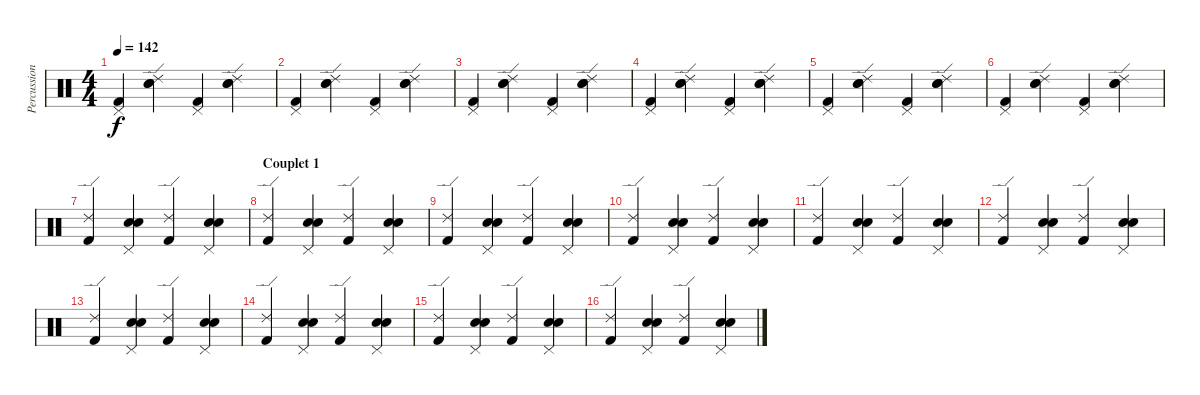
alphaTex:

\track ("Percussions" "Percussion") {instrument percussion}
\staff {score}
\articulation defaults
\ts (4 4)
\tempo 142
\clef neutral
\ks c
("Kick (hit) 2" "Pedal Hi-Hat (hit)").4{dy f} ("Snare (hit) 2" "Electric Snare (hit)" "Ride (edge) 2").4 ("Kick (hit) 2" "Pedal Hi-Hat (hit)").4 ("Snare (hit) 2" "Electric Snare (hit)" "Ride (edge) 2").4 |
("Kick (hit) 2" "Pedal Hi-Hat (hit)").4 ("Snare (hit) 2" "Electric Snare (hit)" "Ride (edge) 2").4 ("Kick (hit) 2" "Pedal Hi-Hat (hit)").4 ("Snare (hit) 2" "Electric Snare (hit)" "Ride (edge) 2").4 |
("Kick (hit) 2" "Pedal Hi-Hat (hit)").4 ("Snare (hit) 2" "Electric Snare (hit)" "Ride (edge) 2").4 ("Kick (hit) 2" "Pedal Hi-Hat (hit)").4 ("Snare (hit) 2" "Electric Snare (hit)" "Ride (edge) 2").4 |
("Kick (hit) 2" "Pedal Hi-Hat (hit)").4 ("Snare (hit) 2" "Electric Snare (hit)" "Ride (edge) 2").4 ("Kick (hit) 2" "Pedal Hi-Hat (hit)").4 ("Snare (hit) 2" "Electric Snare (hit)" "Ride (edge) 2").4 |
("Kick (hit) 2" "Pedal Hi-Hat (hit)").4 ("Snare (hit) 2" "Electric Snare (hit)" "Ride (edge) 2").4 ("Kick (hit) 2" "Pedal Hi-Hat (hit)").4 ("Snare (hit) 2" "Electric Snare (hit)" "Ride (edge) 2").4 |
("Kick (hit) 2" "Pedal Hi-Hat (hit)").4 ("Snare (hit) 2" "Electric Snare (hit)" "Ride (edge) 2").4 ("Kick (hit) 2" "Pedal Hi-Hat (hit)").4 ("Snare (hit) 2" "Electric Snare (hit)" "Ride (edge) 2").4 |
("Kick (hit) 2" "Ride (edge) 2").4 ("Snare (hit) 2" "Electric Snare (hit)" "Pedal Hi-Hat (hit)").4 ("Kick (hit) 2" "Ride (edge) 2").4 ("Snare (hit) 2" "Electric Snare (hit)" "Pedal Hi-Hat (hit)").4 |
\section ("" "Couplet 1")
("Kick (hit) 2" "Ride (edge) 2").4 ("Snare (hit) 2" "Electric Snare (hit)" "Pedal Hi-Hat (hit)").4 ("Kick (hit) 2" "Ride (edge) 2").4 ("Snare (hit) 2" "Electric Snare (hit)" "Pedal Hi-Hat (hit)").4 |
("Kick (hit) 2" "Ride (edge) 2").4 ("Snare (hit) 2" "Electric Snare (hit)" "Pedal Hi-Hat (hit)").4 ("Kick (hit) 2" "Ride (edge) 2").4 ("Snare (hit) 2" "Electric Snare (hit)" "Pedal Hi-Hat (hit)").4 |
("Kick (hit) 2" "Ride (edge) 2").4 ("Snare (hit) 2" "Electric Snare (hit)" "Pedal Hi-Hat (hit)").4 ("Kick (hit) 2" "Ride (edge) 2").4 ("Snare (hit) 2" "Electric Snare (hit)" "Pedal Hi-Hat (hit)").4 |
("Kick (hit) 2" "Ride (edge) 2").4 ("Snare (hit) 2" "Electric Snare (hit)" "Pedal Hi-Hat (hit)").4 ("Kick (hit) 2" "Ride (edge) 2").4 ("Snare (hit) 2" "Electric Snare (hit)" "Pedal Hi-Hat (hit)").4 |
("Kick (hit) 2" "Ride (edge) 2").4 ("Snare (hit) 2" "Electric Snare (hit)" "Pedal Hi-Hat (hit)").4 ("Kick (hit) 2" "Ride (edge) 2").4 ("Snare (hit) 2" "Electric Snare (hit)" "Pedal Hi-Hat (hit)").4 |
("Kick (hit) 2" "Ride (edge) 2").4 ("Snare (hit) 2" "Electric Snare (hit)" "Pedal Hi-Hat (hit)").4 ("Kick (hit) 2" "Ride (edge) 2").4 ("Snare (hit) 2" "Electric Snare (hit)" "Pedal Hi-Hat (hit)").4 |
("Kick (hit) 2" "Ride (edge) 2").4 ("Snare (hit) 2" "Electric Snare (hit)" "Pedal Hi-Hat (hit)").4 ("Kick (hit) 2" "Ride (edge) 2").4 ("Snare (hit) 2" "Electric Snare (hit)" "Pedal Hi-Hat (hit)").4 |
("Kick (hit) 2" "Ride (edge) 2").4 ("Snare (hit) 2" "Electric Snare (hit)" "Pedal Hi-Hat (hit)").4 ("Kick (hit) 2" "Ride (edge) 2").4 ("Snare (hit) 2" "Electric Snare (hit)" "Pedal Hi-Hat (hit)").4 |
("Kick (hit) 2" "Ride (edge) 2").4 ("Snare (hit) 2" "Electric Snare (hit)" "Pedal Hi-Hat (hit)").4 ("Kick (hit) 2" "Ride (edge) 2").4 ("Snare (hit) 2" "Electric Snare (hit)" "Pedal Hi-Hat (hit)").4
